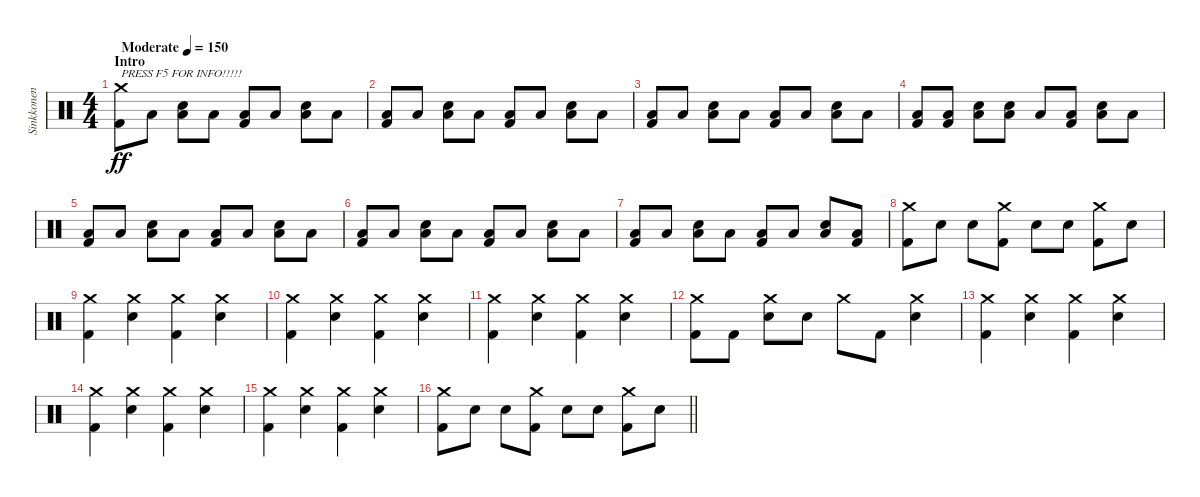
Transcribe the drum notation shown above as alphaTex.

\track ("Sinkkonen" "Sinkkonen") {instrument percussion}
\staff {score}
\articulation defaults
\ts (4 4)
\section ("" "Intro")
\tempo (150 "Moderate")
\clef neutral
\ks c
("Crash medium (hit)" "Kick (hit) 2").8{txt "PRESS F5 FOR INFO!!!!!" dy ff} "Low Floor Tom (hit)".8 ("Snare (hit) 2" "Low Floor Tom (hit)").8 "Low Floor Tom (hit)".8 ("Low Floor Tom (hit)" "Kick (hit) 2").8 "Low Floor Tom (hit)".8 ("Snare (hit) 2" "Low Floor Tom (hit)").8 "Low Floor Tom (hit)".8 |
("Low Floor Tom (hit)" "Kick (hit) 2").8 "Low Floor Tom (hit)".8 ("Snare (hit) 2" "Low Floor Tom (hit)").8 "Low Floor Tom (hit)".8 ("Low Floor Tom (hit)" "Kick (hit) 2").8 "Low Floor Tom (hit)".8 ("Snare (hit) 2" "Low Floor Tom (hit)").8 "Low Floor Tom (hit)".8 |
("Low Floor Tom (hit)" "Kick (hit) 2").8 "Low Floor Tom (hit)".8 ("Snare (hit) 2" "Low Floor Tom (hit)").8 "Low Floor Tom (hit)".8 ("Low Floor Tom (hit)" "Kick (hit) 2").8 "Low Floor Tom (hit)".8 ("Snare (hit) 2" "Low Floor Tom (hit)").8 "Low Floor Tom (hit)".8 |
("Low Floor Tom (hit)" "Kick (hit) 2").8 ("Low Floor Tom (hit)" "Kick (hit) 2").8 ("Snare (hit) 2" "Low Floor Tom (hit)").8 ("Snare (hit) 2" "Low Floor Tom (hit)").8 "Low Floor Tom (hit)".8 ("Low Floor Tom (hit)" "Kick (hit) 2").8 ("Snare (hit) 2" "Low Floor Tom (hit)").8 "Low Floor Tom (hit)".8 |
("Low Floor Tom (hit)" "Kick (hit) 2").8 "Low Floor Tom (hit)".8 ("Snare (hit) 2" "Low Floor Tom (hit)").8 "Low Floor Tom (hit)".8 ("Low Floor Tom (hit)" "Kick (hit) 2").8 "Low Floor Tom (hit)".8 ("Snare (hit) 2" "Low Floor Tom (hit)").8 "Low Floor Tom (hit)".8 |
("Low Floor Tom (hit)" "Kick (hit) 2").8 "Low Floor Tom (hit)".8 ("Snare (hit) 2" "Low Floor Tom (hit)").8 "Low Floor Tom (hit)".8 ("Low Floor Tom (hit)" "Kick (hit) 2").8 "Low Floor Tom (hit)".8 ("Snare (hit) 2" "Low Floor Tom (hit)").8 "Low Floor Tom (hit)".8 |
("Low Floor Tom (hit)" "Kick (hit) 2").8 "Low Floor Tom (hit)".8 ("Snare (hit) 2" "Low Floor Tom (hit)").8 "Low Floor Tom (hit)".8 ("Low Floor Tom (hit)" "Kick (hit) 2").8 "Low Floor Tom (hit)".8 ("Snare (hit) 2" "Low Floor Tom (hit)").8 ("Low Floor Tom (hit)" "Kick (hit) 2").8 |
("Crash medium (hit)" "Kick (hit) 2").8 "Snare (hit) 2".8 "Snare (hit) 2".8 ("Crash medium (hit)" "Kick (hit) 2").8 "Snare (hit) 2".8 "Snare (hit) 2".8 ("Crash medium (hit)" "Kick (hit) 2").8 "Snare (hit) 2".8 |
("Crash medium (hit)" "Kick (hit) 2").4 ("Crash medium (hit)" "Snare (hit) 2").4 ("Crash medium (hit)" "Kick (hit) 2").4 ("Crash medium (hit)" "Snare (hit) 2").4 |
("Crash medium (hit)" "Kick (hit) 2").4 ("Crash medium (hit)" "Snare (hit) 2").4 ("Crash medium (hit)" "Kick (hit) 2").4 ("Crash medium (hit)" "Snare (hit) 2").4 |
("Crash medium (hit)" "Kick (hit) 2").4 ("Crash medium (hit)" "Snare (hit) 2").4 ("Crash medium (hit)" "Kick (hit) 2").4 ("Crash medium (hit)" "Snare (hit) 2").4 |
("Crash medium (hit)" "Kick (hit) 2").8 "Kick (hit) 2".8 ("Crash medium (hit)" "Snare (hit) 2").8 "Snare (hit) 2".8 "Crash medium (hit)".8 "Kick (hit) 2".8 ("Crash medium (hit)" "Snare (hit) 2").4 |
("Crash medium (hit)" "Kick (hit) 2").4 ("Crash medium (hit)" "Snare (hit) 2").4 ("Crash medium (hit)" "Kick (hit) 2").4 ("Crash medium (hit)" "Snare (hit) 2").4 |
("Crash medium (hit)" "Kick (hit) 2").4 ("Crash medium (hit)" "Snare (hit) 2").4 ("Crash medium (hit)" "Kick (hit) 2").4 ("Crash medium (hit)" "Snare (hit) 2").4 |
("Crash medium (hit)" "Kick (hit) 2").4 ("Crash medium (hit)" "Snare (hit) 2").4 ("Crash medium (hit)" "Kick (hit) 2").4 ("Crash medium (hit)" "Snare (hit) 2").4 |
\barLineRight lightlight
("Crash medium (hit)" "Kick (hit) 2").8 "Snare (hit) 2".8 "Snare (hit) 2".8 ("Crash medium (hit)" "Kick (hit) 2").8 "Snare (hit) 2".8 "Snare (hit) 2".8 ("Crash medium (hit)" "Kick (hit) 2").8 "Snare (hit) 2".8
